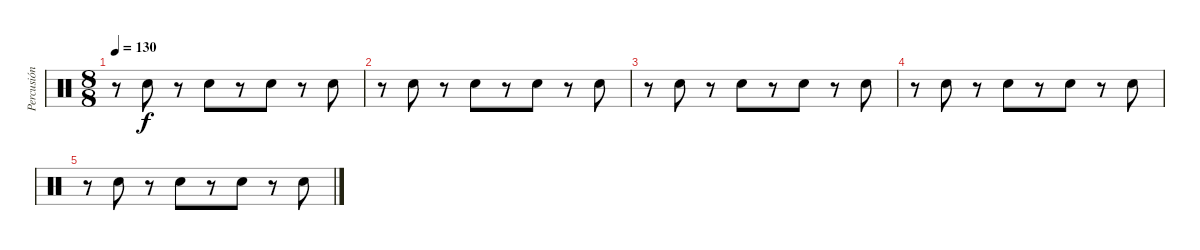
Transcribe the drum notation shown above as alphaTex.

\track ("Percusión" "Percusión") {instrument percussion}
\staff {score}
\articulation defaults
\ts (8 8)
\tempo 130
\clef neutral
\ks c
r.8{dy f} "Snare (hit) 2".8 r.8 "Snare (hit) 2".8 r.8 "Snare (hit) 2".8 r.8 "Snare (hit) 2".8 |
r.8 "Snare (hit) 2".8 r.8 "Snare (hit) 2".8 r.8 "Snare (hit) 2".8 r.8 "Snare (hit) 2".8 |
r.8 "Snare (hit) 2".8 r.8 "Snare (hit) 2".8 r.8 "Snare (hit) 2".8 r.8 "Snare (hit) 2".8 |
r.8 "Snare (hit) 2".8 r.8 "Snare (hit) 2".8 r.8 "Snare (hit) 2".8 r.8 "Snare (hit) 2".8 |
r.8 "Snare (hit) 2".8 r.8 "Snare (hit) 2".8 r.8 "Snare (hit) 2".8 r.8 "Snare (hit) 2".8
